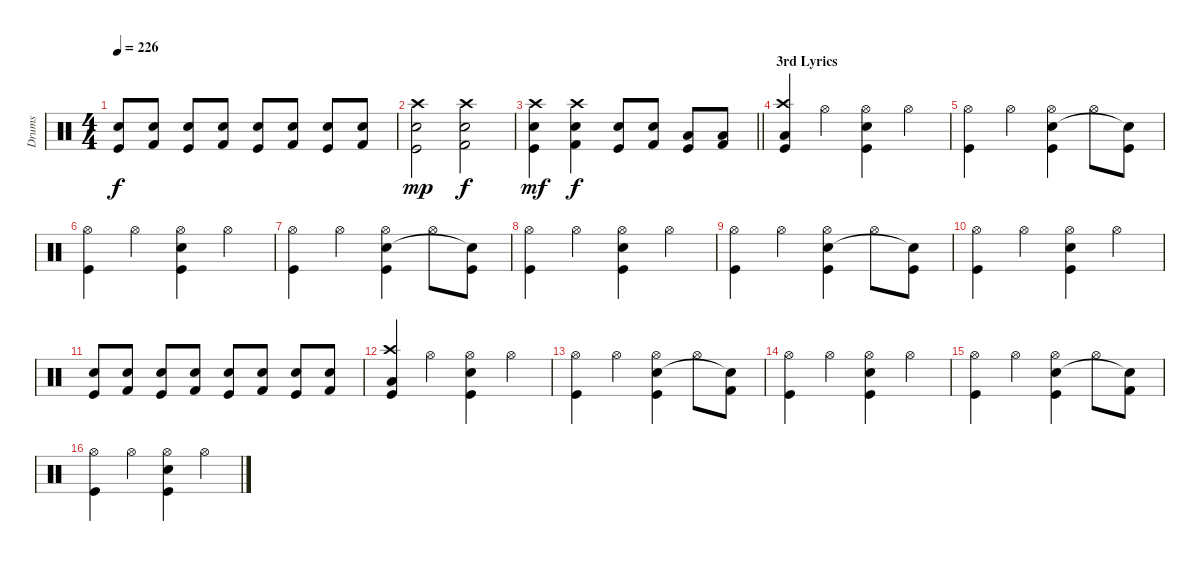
\track ("Drums" "Drums") {instrument percussion}
\staff {score}
\articulation defaults
\ts (4 4)
\tempo 226
\clef neutral
\ks c
("Kick (hit)" "Snare (hit) 2").8{dy f} ("Kick (hit) 2" "Snare (hit) 2").8 ("Kick (hit)" "Snare (hit) 2").8 ("Kick (hit) 2" "Snare (hit) 2").8 ("Kick (hit)" "Snare (hit) 2").8 ("Kick (hit) 2" "Snare (hit) 2").8 ("Kick (hit)" "Snare (hit) 2").8 ("Kick (hit) 2" "Snare (hit) 2").8 |
("Kick (hit)" "Snare (hit) 2" "Crash high (hit)").2{dy mp} ("Kick (hit) 2" "Snare (hit) 2" "Crash high (hit)").2{dy f} |
\barLineRight lightlight
("Kick (hit)" "Snare (hit) 2" "Crash high (hit)").4{dy mf} ("Kick (hit) 2" "Snare (hit) 2" "Crash high (hit)").4{dy f} ("Kick (hit)" "Snare (hit) 2").8 ("Kick (hit) 2" "Electric Snare (hit)").8 ("Kick (hit)" "Low Floor Tom (hit)").8 ("Kick (hit) 2" "Low Tom (hit)").8 |
\section ("" "3rd Lyrics")
("Kick (hit)" "Low Tom (hit)" "Crash high (hit)").4 "Hi-Hat (open)".4 ("Kick (hit)" "Snare (hit) 2" "Hi-Hat (open)").4 "Hi-Hat (open)".4 |
("Kick (hit)" "Hi-Hat (open)").4 "Hi-Hat (open)".4 ("Kick (hit)" "Snare (hit) 2" "Hi-Hat (open)").4 "Hi-Hat (open)".8 ("Kick (hit)" "Snare (hit)"{t}).8 |
("Kick (hit)" "Hi-Hat (open)").4 "Hi-Hat (open)".4 ("Kick (hit)" "Snare (hit) 2" "Hi-Hat (open)").4 "Hi-Hat (open)".4 |
("Kick (hit)" "Hi-Hat (open)").4 "Hi-Hat (open)".4 ("Kick (hit)" "Snare (hit) 2" "Hi-Hat (open)").4 "Hi-Hat (open)".8 ("Kick (hit)" "Snare (hit)"{t}).8 |
("Kick (hit)" "Hi-Hat (open)").4 "Hi-Hat (open)".4 ("Kick (hit)" "Snare (hit) 2" "Hi-Hat (open)").4 "Hi-Hat (open)".4 |
("Kick (hit)" "Hi-Hat (open)").4 "Hi-Hat (open)".4 ("Kick (hit)" "Snare (hit) 2" "Hi-Hat (open)").4 "Hi-Hat (open)".8 ("Kick (hit)" "Snare (hit)"{t}).8 |
("Kick (hit)" "Hi-Hat (open)").4 "Hi-Hat (open)".4 ("Kick (hit)" "Snare (hit) 2" "Hi-Hat (open)").4 "Hi-Hat (open)".4 |
("Kick (hit)" "Snare (hit) 2").8 ("Kick (hit) 2" "Snare (hit) 2").8 ("Kick (hit)" "Snare (hit) 2").8 ("Kick (hit) 2" "Snare (hit) 2").8 ("Kick (hit)" "Snare (hit) 2").8 ("Kick (hit) 2" "Snare (hit) 2").8 ("Kick (hit)" "Snare (hit) 2").8 ("Kick (hit) 2" "Snare (hit) 2").8 |
("Kick (hit)" "Low Tom (hit)" "Crash high (hit)").4 "Hi-Hat (open)".4 ("Kick (hit)" "Snare (hit) 2" "Hi-Hat (open)").4 "Hi-Hat (open)".4 |
("Kick (hit)" "Hi-Hat (open)").4 "Hi-Hat (open)".4 ("Kick (hit)" "Snare (hit) 2" "Hi-Hat (open)").4 "Hi-Hat (open)".8 ("Kick (hit) 2" "Snare (hit)"{t}).8 |
("Kick (hit)" "Hi-Hat (open)").4 "Hi-Hat (open)".4 ("Kick (hit)" "Snare (hit) 2" "Hi-Hat (open)").4 "Hi-Hat (open)".4 |
("Kick (hit)" "Hi-Hat (open)").4 "Hi-Hat (open)".4 ("Kick (hit)" "Snare (hit) 2" "Hi-Hat (open)").4 "Hi-Hat (open)".8 ("Kick (hit) 2" "Snare (hit)"{t}).8 |
("Kick (hit)" "Hi-Hat (open)").4 "Hi-Hat (open)".4 ("Kick (hit)" "Snare (hit) 2" "Hi-Hat (open)").4 "Hi-Hat (open)".4
